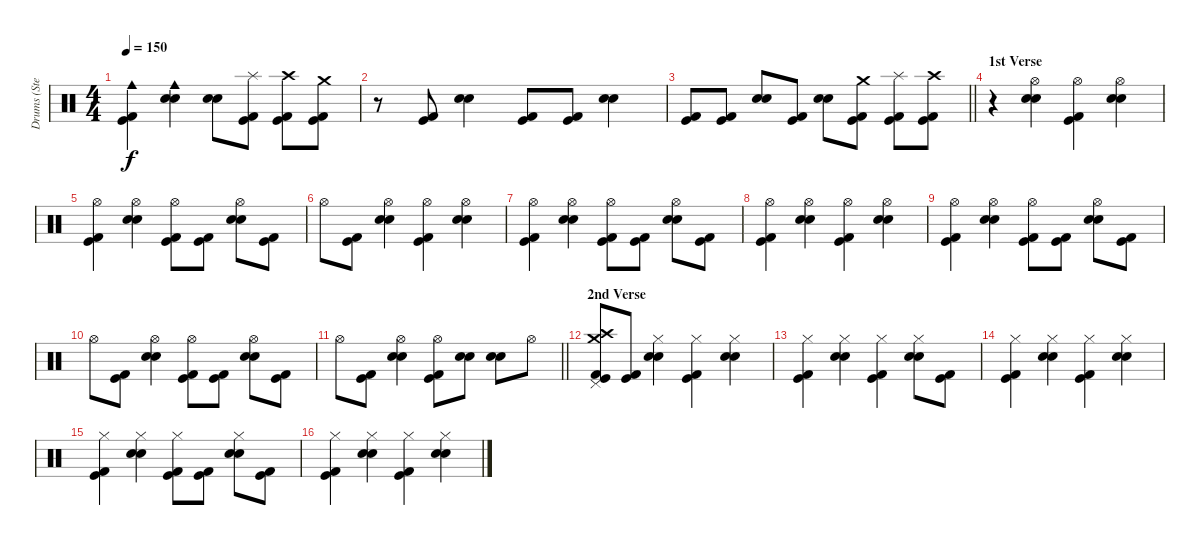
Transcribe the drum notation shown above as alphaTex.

\track ("Drums (Steven)" "Drums (Ste") {instrument percussion}
\staff {score}
\articulation defaults
\ts (4 4)
\tempo 150
\clef neutral
\ks c
("Kick (hit) 2" "Kick (hit)" "Cowbell medium (hit)").4{dy f} ("Electric Snare (hit)" "Snare (hit) 2" "Cowbell medium (hit)").4 ("Electric Snare (hit)" "Snare (hit) 2").8 ("Kick (hit) 2" "Kick (hit)" "Splash (hit)").8 ("Kick (hit) 2" "Kick (hit)" "Crash high (hit)").8 ("Kick (hit) 2" "Kick (hit)" "Crash medium (hit)").8 |
r.8 ("Kick (hit) 2" "Kick (hit)").8 ("Electric Snare (hit)" "Snare (hit) 2").4 ("Kick (hit)" "Kick (hit) 2").8 ("Kick (hit)" "Kick (hit) 2").8 ("Electric Snare (hit)" "Snare (hit) 2").4 |
\barLineRight lightlight
("Kick (hit) 2" "Kick (hit)").8 ("Kick (hit) 2" "Kick (hit)").8 ("Electric Snare (hit)" "Snare (hit) 2").8 ("Kick (hit)" "Kick (hit) 2").8 ("Electric Snare (hit)" "Snare (hit) 2").8 ("Kick (hit) 2" "Kick (hit)" "Crash medium (hit)").8 ("Kick (hit) 2" "Kick (hit)" "Splash (hit)").8 ("Kick (hit) 2" "Kick (hit)" "Crash high (hit)").8 |
\section ("" "1st Verse")
r.4 ("Electric Snare (hit)" "Snare (hit) 2" "Hi-Hat (open)").4 ("Kick (hit) 2" "Kick (hit)" "Hi-Hat (open)").4 ("Electric Snare (hit)" "Snare (hit) 2" "Hi-Hat (open)").4 |
("Kick (hit) 2" "Kick (hit)" "Hi-Hat (open)").4 ("Electric Snare (hit)" "Snare (hit) 2" "Hi-Hat (open)").4 ("Kick (hit) 2" "Kick (hit)" "Hi-Hat (open)").8 ("Kick (hit) 2" "Kick (hit)").8 ("Electric Snare (hit)" "Snare (hit) 2" "Hi-Hat (open)").8 ("Kick (hit) 2" "Kick (hit)").8 |
"Hi-Hat (open)".8 ("Kick (hit) 2" "Kick (hit)").8 ("Electric Snare (hit)" "Snare (hit) 2" "Hi-Hat (open)").4 ("Kick (hit) 2" "Kick (hit)" "Hi-Hat (open)").4 ("Electric Snare (hit)" "Snare (hit) 2" "Hi-Hat (open)").4 |
("Kick (hit) 2" "Kick (hit)" "Hi-Hat (open)").4 ("Electric Snare (hit)" "Snare (hit) 2" "Hi-Hat (open)").4 ("Kick (hit) 2" "Kick (hit)" "Hi-Hat (open)").8 ("Kick (hit) 2" "Kick (hit)").8 ("Electric Snare (hit)" "Snare (hit) 2" "Hi-Hat (open)").8 ("Kick (hit) 2" "Kick (hit)").8 |
("Kick (hit) 2" "Kick (hit)" "Hi-Hat (open)").4 ("Electric Snare (hit)" "Snare (hit) 2" "Hi-Hat (open)").4 ("Kick (hit) 2" "Kick (hit)" "Hi-Hat (open)").4 ("Electric Snare (hit)" "Snare (hit) 2" "Hi-Hat (open)").4 |
("Kick (hit) 2" "Kick (hit)" "Hi-Hat (open)").4 ("Electric Snare (hit)" "Snare (hit) 2" "Hi-Hat (open)").4 ("Kick (hit) 2" "Kick (hit)" "Hi-Hat (open)").8 ("Kick (hit) 2" "Kick (hit)").8 ("Electric Snare (hit)" "Snare (hit) 2" "Hi-Hat (open)").8 ("Kick (hit) 2" "Kick (hit)").8 |
"Hi-Hat (open)".8 ("Kick (hit) 2" "Kick (hit)").8 ("Electric Snare (hit)" "Snare (hit) 2" "Hi-Hat (open)").4 ("Kick (hit) 2" "Kick (hit)" "Hi-Hat (open)").8 ("Kick (hit) 2" "Kick (hit)").8 ("Electric Snare (hit)" "Snare (hit) 2" "Hi-Hat (open)").8 ("Kick (hit) 2" "Kick (hit)").8 |
\barLineRight lightlight "Hi-Hat (open)".8
("Kick (hit) 2" "Kick (hit)").8 ("Electric Snare (hit)" "Snare (hit) 2" "Hi-Hat (open)").4 ("Kick (hit) 2" "Kick (hit)" "Hi-Hat (open)").8 ("Electric Snare (hit)" "Snare (hit) 2").8 ("Electric Snare (hit)" "Snare (hit) 2").8 "Hi-Hat (open)".8 |
\section ("" "2nd Verse")
("Kick (hit) 2" "Kick (hit)" "Pedal Hi-Hat (hit)" "Crash medium (hit)" "Crash high (hit)").8 ("Kick (hit) 2" "Kick (hit)").8 ("Electric Snare (hit)" "Snare (hit) 2" "Hi-Hat (closed)").4 ("Kick (hit) 2" "Kick (hit)" "Hi-Hat (closed)").4 ("Electric Snare (hit)" "Snare (hit) 2" "Hi-Hat (closed)").4 |
("Kick (hit) 2" "Kick (hit)" "Hi-Hat (closed)").4 ("Electric Snare (hit)" "Snare (hit) 2" "Hi-Hat (closed)").4 ("Kick (hit) 2" "Kick (hit)" "Hi-Hat (closed)").4 ("Electric Snare (hit)" "Snare (hit) 2" "Hi-Hat (closed)").8 ("Kick (hit) 2" "Kick (hit)").8 |
("Kick (hit) 2" "Kick (hit)" "Hi-Hat (closed)").4 ("Electric Snare (hit)" "Snare (hit) 2" "Hi-Hat (closed)").4 ("Kick (hit) 2" "Kick (hit)" "Hi-Hat (closed)").4 ("Electric Snare (hit)" "Snare (hit) 2" "Hi-Hat (closed)").4 |
("Kick (hit) 2" "Kick (hit)" "Hi-Hat (closed)").4 ("Electric Snare (hit)" "Snare (hit) 2" "Hi-Hat (closed)").4 ("Kick (hit) 2" "Kick (hit)" "Hi-Hat (closed)").8 ("Kick (hit) 2" "Kick (hit)").8 ("Electric Snare (hit)" "Snare (hit) 2" "Hi-Hat (closed)").8 ("Kick (hit) 2" "Kick (hit)").8 |
("Kick (hit) 2" "Kick (hit)" "Hi-Hat (closed)").4 ("Electric Snare (hit)" "Snare (hit) 2" "Hi-Hat (closed)").4 ("Kick (hit) 2" "Kick (hit)" "Hi-Hat (closed)").4 ("Electric Snare (hit)" "Snare (hit) 2" "Hi-Hat (closed)").4
